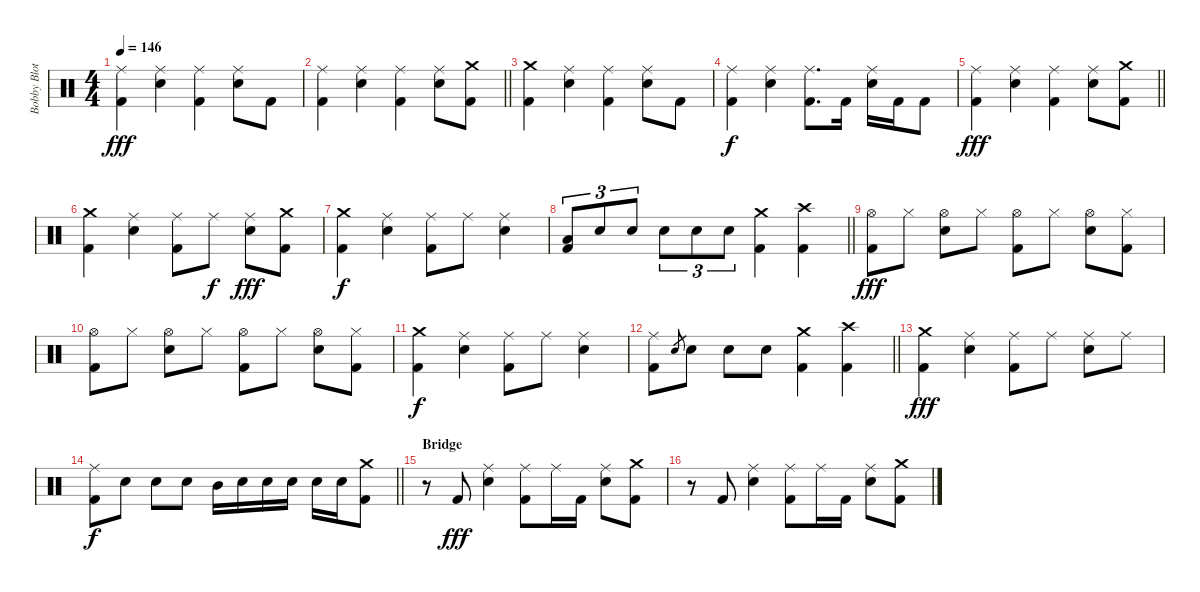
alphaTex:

\track ("Bobby Blotzer - Drums" "Bobby Blot") {instrument percussion}
\staff {score}
\articulation defaults
\ts (4 4)
\tempo 146
\clef neutral
\ks c
("Ride (middle)" "Kick (hit) 2").4{dy fff} ("Ride (middle)" "Snare (hit) 2").4 ("Ride (middle)" "Kick (hit) 2").4 ("Ride (middle)" "Snare (hit) 2").8 "Kick (hit) 2".8 |
\barLineRight lightlight
("Ride (middle)" "Kick (hit) 2").4 ("Ride (middle)" "Snare (hit) 2").4 ("Ride (middle)" "Kick (hit) 2").4 ("Ride (middle)" "Snare (hit) 2").8 ("Crash medium (hit)" "Kick (hit) 2").8 |
("Crash medium (hit)" "Kick (hit) 2").4 ("Ride (middle)" "Snare (hit) 2").4 ("Ride (middle)" "Kick (hit) 2").4 ("Ride (middle)" "Snare (hit) 2").8 "Kick (hit) 2".8 |
("Ride (middle)" "Kick (hit) 2").4{dy f} ("Ride (middle)" "Snare (hit) 2").4 ("Ride (middle)" "Kick (hit) 2").8{d} "Kick (hit) 2".16 ("Ride (middle)" "Snare (hit) 2").16 "Kick (hit) 2".16 "Kick (hit) 2".8 |
\barLineRight lightlight
("Ride (middle)" "Kick (hit) 2").4{dy fff} ("Ride (middle)" "Snare (hit) 2").4 ("Ride (middle)" "Kick (hit) 2").4 ("Ride (middle)" "Snare (hit) 2").8 ("Crash medium (hit)" "Kick (hit) 2").8 |
("Crash medium (hit)" "Kick (hit) 2").4 ("Ride (middle)" "Snare (hit) 2").4 ("Ride (middle)" "Kick (hit) 2").8 "Ride (middle)".8{dy f} ("Ride (middle)" "Snare (hit) 2").8{dy fff} ("Crash medium (hit)" "Kick (hit) 2").8 |
("Crash medium (hit)" "Kick (hit) 2").4{dy f} ("Ride (middle)" "Snare (hit) 2").4 ("Ride (middle)" "Kick (hit) 2").8 "Ride (middle)".8 ("Ride (middle)" "Snare (hit) 2").4 |
\barLineRight lightlight
("Low Tom (hit)" "Kick (hit) 2").8{tu (3 2)} "Snare (hit) 2".8{tu (3 2)} "Snare (hit) 2".8{tu (3 2)} "Snare (hit) 2".8{tu (3 2)} "Snare (hit) 2".8{tu (3 2)} "Snare (hit) 2".8{tu (3 2)} ("Crash medium (hit)" "Kick (hit) 2").4 ("Crash high (hit)" "Kick (hit) 2").4 |
("Hi-Hat (open)" "Kick (hit) 2").8{dy fff} "Hi-Hat (closed)".8 ("Hi-Hat (open)" "Snare (hit) 2").8 "Hi-Hat (closed)".8 ("Hi-Hat (open)" "Kick (hit) 2").8 "Hi-Hat (closed)".8 ("Hi-Hat (open)" "Snare (hit) 2").8 ("Hi-Hat (closed)" "Kick (hit) 2").8 |
("Hi-Hat (open)" "Kick (hit) 2").8 "Hi-Hat (closed)".8 ("Hi-Hat (open)" "Snare (hit) 2").8 "Hi-Hat (closed)".8 ("Hi-Hat (open)" "Kick (hit) 2").8 "Hi-Hat (closed)".8 ("Hi-Hat (open)" "Snare (hit) 2").8 ("Hi-Hat (closed)" "Kick (hit) 2").8 |
("Crash medium (hit)" "Kick (hit) 2").4{dy f} ("Ride (middle)" "Snare (hit) 2").4 ("Ride (middle)" "Kick (hit) 2").8 "Ride (middle)".8 ("Ride (middle)" "Snare (hit) 2").4 |
\barLineRight lightlight
("Ride (middle)" "Kick (hit) 2").8 "Snare (hit) 2".8{gr} "Snare (hit) 2".8 "Snare (hit) 2".8 "Snare (hit) 2".8 ("Crash medium (hit)" "Kick (hit) 2").4 ("Crash high (hit)" "Kick (hit) 2").4 |
("Crash medium (hit)" "Kick (hit) 2").4{dy fff} ("Ride (middle)" "Snare (hit) 2").4 ("Ride (middle)" "Kick (hit) 2").8 "Ride (middle)".8 ("Ride (middle)" "Snare (hit) 2").8 "Ride (middle)".8 |
\barLineRight lightlight
("Ride (middle)" "Kick (hit) 2").8{dy f} "Snare (hit) 2".8 "Snare (hit) 2".8 "Snare (hit) 2".8 "Mid Tom (hit)".16 "Snare (hit) 2".16 "Snare (hit) 2".16 "Snare (hit) 2".16 "Snare (hit) 2".16 "Snare (hit) 2".16 ("Crash medium (hit)" "Kick (hit) 2").8 |
\section ("" "Bridge")
r.8 "Kick (hit) 2".8{dy fff} ("Ride (middle)" "Snare (hit) 2").4 ("Ride (middle)" "Kick (hit) 2").8 "Ride (middle)".16 "Kick (hit) 2".16 ("Ride (middle)" "Snare (hit) 2").8 ("Crash medium (hit)" "Kick (hit) 2").8 |
r.8 "Kick (hit) 2".8 ("Ride (middle)" "Snare (hit) 2").4 ("Ride (middle)" "Kick (hit) 2").8 "Ride (middle)".16 "Kick (hit) 2".16 ("Ride (middle)" "Snare (hit) 2").8 ("Crash medium (hit)" "Kick (hit) 2").8
